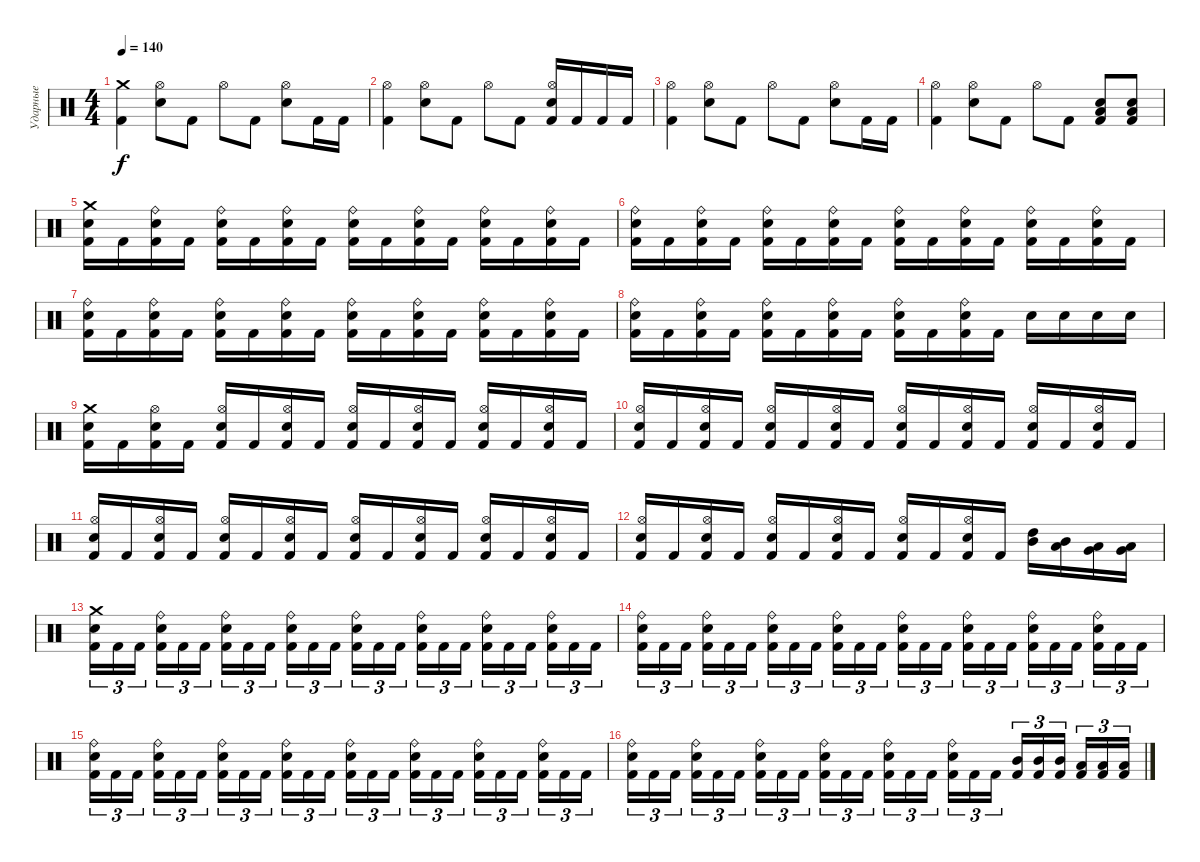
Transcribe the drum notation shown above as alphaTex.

\track ("Ударные" "Ударные") {instrument percussion}
\staff {score}
\articulation defaults
\ts (4 4)
\tempo 140
\clef neutral
\ks c
("Crash medium (hit)" "Kick (hit) 2").4{dy f} ("Hi-Hat (open)" "Electric Snare (hit)").8 "Kick (hit) 2".8 "Hi-Hat (open)".8 "Kick (hit) 2".8 ("Hi-Hat (open)" "Electric Snare (hit)").8 "Kick (hit) 2".16 "Kick (hit) 2".16 |
("Hi-Hat (open)" "Kick (hit) 2").4 ("Hi-Hat (open)" "Electric Snare (hit)").8 "Kick (hit) 2".8 "Hi-Hat (open)".8 "Kick (hit) 2".8 ("Hi-Hat (open)" "Electric Snare (hit)" "Kick (hit) 2").16 "Kick (hit) 2".16 "Kick (hit) 2".16 "Kick (hit) 2".16 |
("Hi-Hat (open)" "Kick (hit) 2").4 ("Hi-Hat (open)" "Electric Snare (hit)").8 "Kick (hit) 2".8 "Hi-Hat (open)".8 "Kick (hit) 2".8 ("Hi-Hat (open)" "Electric Snare (hit)").8 "Kick (hit) 2".16 "Kick (hit) 2".16 |
("Hi-Hat (open)" "Kick (hit) 2").4 ("Hi-Hat (open)" "Electric Snare (hit)").8 "Kick (hit) 2".8 "Hi-Hat (open)".8 "Kick (hit) 2".8 ("Electric Snare (hit)" "Low Tom (hit)" "Kick (hit) 2").8 ("Electric Snare (hit)" "Low Tom (hit)" "Kick (hit) 2").8 |
("Crash medium (hit)" "Electric Snare (hit)" "Kick (hit) 2").16 "Kick (hit) 2".16 ("Ride (bell)" "Electric Snare (hit)" "Kick (hit) 2").16 "Kick (hit) 2".16 ("Ride (bell)" "Electric Snare (hit)" "Kick (hit) 2").16 "Kick (hit) 2".16 ("Ride (bell)" "Electric Snare (hit)" "Kick (hit) 2").16 "Kick (hit) 2".16 ("Ride (bell)" "Electric Snare (hit)" "Kick (hit) 2").16 "Kick (hit) 2".16 ("Ride (bell)" "Electric Snare (hit)" "Kick (hit) 2").16 "Kick (hit) 2".16 ("Ride (bell)" "Electric Snare (hit)" "Kick (hit) 2").16 "Kick (hit) 2".16 ("Ride (bell)" "Electric Snare (hit)" "Kick (hit) 2").16 "Kick (hit) 2".16 |
("Ride (bell)" "Electric Snare (hit)" "Kick (hit) 2").16 "Kick (hit) 2".16 ("Ride (bell)" "Electric Snare (hit)" "Kick (hit) 2").16 "Kick (hit) 2".16 ("Ride (bell)" "Electric Snare (hit)" "Kick (hit) 2").16 "Kick (hit) 2".16 ("Ride (bell)" "Electric Snare (hit)" "Kick (hit) 2").16 "Kick (hit) 2".16 ("Ride (bell)" "Electric Snare (hit)" "Kick (hit) 2").16 "Kick (hit) 2".16 ("Ride (bell)" "Electric Snare (hit)" "Kick (hit) 2").16 "Kick (hit) 2".16 ("Ride (bell)" "Electric Snare (hit)" "Kick (hit) 2").16 "Kick (hit) 2".16 ("Ride (bell)" "Electric Snare (hit)" "Kick (hit) 2").16 "Kick (hit) 2".16 |
("Ride (bell)" "Electric Snare (hit)" "Kick (hit) 2").16 "Kick (hit) 2".16 ("Ride (bell)" "Electric Snare (hit)" "Kick (hit) 2").16 "Kick (hit) 2".16 ("Ride (bell)" "Electric Snare (hit)" "Kick (hit) 2").16 "Kick (hit) 2".16 ("Ride (bell)" "Electric Snare (hit)" "Kick (hit) 2").16 "Kick (hit) 2".16 ("Ride (bell)" "Electric Snare (hit)" "Kick (hit) 2").16 "Kick (hit) 2".16 ("Ride (bell)" "Electric Snare (hit)" "Kick (hit) 2").16 "Kick (hit) 2".16 ("Ride (bell)" "Electric Snare (hit)" "Kick (hit) 2").16 "Kick (hit) 2".16 ("Ride (bell)" "Electric Snare (hit)" "Kick (hit) 2").16 "Kick (hit) 2".16 |
("Ride (bell)" "Electric Snare (hit)" "Kick (hit) 2").16 "Kick (hit) 2".16 ("Ride (bell)" "Electric Snare (hit)" "Kick (hit) 2").16 "Kick (hit) 2".16 ("Ride (bell)" "Electric Snare (hit)" "Kick (hit) 2").16 "Kick (hit) 2".16 ("Ride (bell)" "Electric Snare (hit)" "Kick (hit) 2").16 "Kick (hit) 2".16 ("Ride (bell)" "Electric Snare (hit)" "Kick (hit) 2").16 "Kick (hit) 2".16 ("Ride (bell)" "Electric Snare (hit)" "Kick (hit) 2").16 "Kick (hit) 2".16 "Electric Snare (hit)".16 "Electric Snare (hit)".16 "Electric Snare (hit)".16 "Electric Snare (hit)".16 |
("Crash medium (hit)" "Electric Snare (hit)" "Kick (hit) 2").16 "Kick (hit) 2".16 ("Hi-Hat (open)" "Electric Snare (hit)" "Kick (hit) 2").16 "Kick (hit) 2".16 ("Hi-Hat (open)" "Electric Snare (hit)" "Kick (hit) 2").16 "Kick (hit) 2".16 ("Hi-Hat (open)" "Electric Snare (hit)" "Kick (hit) 2").16 "Kick (hit) 2".16 ("Hi-Hat (open)" "Electric Snare (hit)" "Kick (hit) 2").16 "Kick (hit) 2".16 ("Hi-Hat (open)" "Electric Snare (hit)" "Kick (hit) 2").16 "Kick (hit) 2".16 ("Hi-Hat (open)" "Electric Snare (hit)" "Kick (hit) 2").16 "Kick (hit) 2".16 ("Hi-Hat (open)" "Electric Snare (hit)" "Kick (hit) 2").16 "Kick (hit) 2".16 |
("Hi-Hat (open)" "Electric Snare (hit)" "Kick (hit) 2").16 "Kick (hit) 2".16 ("Hi-Hat (open)" "Electric Snare (hit)" "Kick (hit) 2").16 "Kick (hit) 2".16 ("Hi-Hat (open)" "Electric Snare (hit)" "Kick (hit) 2").16 "Kick (hit) 2".16 ("Hi-Hat (open)" "Electric Snare (hit)" "Kick (hit) 2").16 "Kick (hit) 2".16 ("Hi-Hat (open)" "Electric Snare (hit)" "Kick (hit) 2").16 "Kick (hit) 2".16 ("Hi-Hat (open)" "Electric Snare (hit)" "Kick (hit) 2").16 "Kick (hit) 2".16 ("Hi-Hat (open)" "Electric Snare (hit)" "Kick (hit) 2").16 "Kick (hit) 2".16 ("Hi-Hat (open)" "Electric Snare (hit)" "Kick (hit) 2").16 "Kick (hit) 2".16 |
("Hi-Hat (open)" "Electric Snare (hit)" "Kick (hit) 2").16 "Kick (hit) 2".16 ("Hi-Hat (open)" "Electric Snare (hit)" "Kick (hit) 2").16 "Kick (hit) 2".16 ("Hi-Hat (open)" "Electric Snare (hit)" "Kick (hit) 2").16 "Kick (hit) 2".16 ("Hi-Hat (open)" "Electric Snare (hit)" "Kick (hit) 2").16 "Kick (hit) 2".16 ("Hi-Hat (open)" "Electric Snare (hit)" "Kick (hit) 2").16 "Kick (hit) 2".16 ("Hi-Hat (open)" "Electric Snare (hit)" "Kick (hit) 2").16 "Kick (hit) 2".16 ("Hi-Hat (open)" "Electric Snare (hit)" "Kick (hit) 2").16 "Kick (hit) 2".16 ("Hi-Hat (open)" "Electric Snare (hit)" "Kick (hit) 2").16 "Kick (hit) 2".16 |
("Hi-Hat (open)" "Electric Snare (hit)" "Kick (hit) 2").16 "Kick (hit) 2".16 ("Hi-Hat (open)" "Electric Snare (hit)" "Kick (hit) 2").16 "Kick (hit) 2".16 ("Hi-Hat (open)" "Electric Snare (hit)" "Kick (hit) 2").16 "Kick (hit) 2".16 ("Hi-Hat (open)" "Electric Snare (hit)" "Kick (hit) 2").16 "Kick (hit) 2".16 ("Hi-Hat (open)" "Electric Snare (hit)" "Kick (hit) 2").16 "Kick (hit) 2".16 ("Hi-Hat (open)" "Electric Snare (hit)" "Kick (hit) 2").16 "Kick (hit) 2".16 ("High Tom (hit)" "Mid Tom (hit)").16 ("Mid Tom (hit)" "Low Tom (hit)").16 ("Low Tom (hit)" "Very Low Tom (hit)").16 ("Very Low Tom (hit)" "Low Floor Tom (hit)").16 |
("Crash medium (hit)" "Electric Snare (hit)" "Kick (hit) 2").16{tu (3 2)} "Kick (hit) 2".16{tu (3 2)} "Kick (hit) 2".16{tu (3 2) beam splitsecondary} ("Ride (bell)" "Electric Snare (hit)" "Kick (hit) 2").16{tu (3 2)} "Kick (hit) 2".16{tu (3 2)} "Kick (hit) 2".16{tu (3 2)} ("Ride (bell)" "Electric Snare (hit)" "Kick (hit) 2").16{tu (3 2)} "Kick (hit) 2".16{tu (3 2)} "Kick (hit) 2".16{tu (3 2) beam splitsecondary} ("Ride (bell)" "Electric Snare (hit)" "Kick (hit) 2").16{tu (3 2)} "Kick (hit) 2".16{tu (3 2)} "Kick (hit) 2".16{tu (3 2)} ("Ride (bell)" "Electric Snare (hit)" "Kick (hit) 2").16{tu (3 2)} "Kick (hit) 2".16{tu (3 2)} "Kick (hit) 2".16{tu (3 2) beam splitsecondary} ("Ride (bell)" "Electric Snare (hit)" "Kick (hit) 2").16{tu (3 2)} "Kick (hit) 2".16{tu (3 2)} "Kick (hit) 2".16{tu (3 2)} ("Ride (bell)" "Electric Snare (hit)" "Kick (hit) 2").16{tu (3 2)} "Kick (hit) 2".16{tu (3 2)} "Kick (hit) 2".16{tu (3 2) beam splitsecondary} ("Ride (bell)" "Electric Snare (hit)" "Kick (hit) 2").16{tu (3 2)} "Kick (hit) 2".16{tu (3 2)} "Kick (hit) 2".16{tu (3 2)} |
("Ride (bell)" "Electric Snare (hit)" "Kick (hit) 2").16{tu (3 2)} "Kick (hit) 2".16{tu (3 2)} "Kick (hit) 2".16{tu (3 2) beam splitsecondary} ("Ride (bell)" "Electric Snare (hit)" "Kick (hit) 2").16{tu (3 2)} "Kick (hit) 2".16{tu (3 2)} "Kick (hit) 2".16{tu (3 2)} ("Ride (bell)" "Electric Snare (hit)" "Kick (hit) 2").16{tu (3 2)} "Kick (hit) 2".16{tu (3 2)} "Kick (hit) 2".16{tu (3 2) beam splitsecondary} ("Ride (bell)" "Electric Snare (hit)" "Kick (hit) 2").16{tu (3 2)} "Kick (hit) 2".16{tu (3 2)} "Kick (hit) 2".16{tu (3 2)} ("Ride (bell)" "Electric Snare (hit)" "Kick (hit) 2").16{tu (3 2)} "Kick (hit) 2".16{tu (3 2)} "Kick (hit) 2".16{tu (3 2) beam splitsecondary} ("Ride (bell)" "Electric Snare (hit)" "Kick (hit) 2").16{tu (3 2)} "Kick (hit) 2".16{tu (3 2)} "Kick (hit) 2".16{tu (3 2)} ("Ride (bell)" "Electric Snare (hit)" "Kick (hit) 2").16{tu (3 2)} "Kick (hit) 2".16{tu (3 2)} "Kick (hit) 2".16{tu (3 2) beam splitsecondary} ("Ride (bell)" "Electric Snare (hit)" "Kick (hit) 2").16{tu (3 2)} "Kick (hit) 2".16{tu (3 2)} "Kick (hit) 2".16{tu (3 2)} |
("Ride (bell)" "Electric Snare (hit)" "Kick (hit) 2").16{tu (3 2)} "Kick (hit) 2".16{tu (3 2)} "Kick (hit) 2".16{tu (3 2) beam splitsecondary} ("Ride (bell)" "Electric Snare (hit)" "Kick (hit) 2").16{tu (3 2)} "Kick (hit) 2".16{tu (3 2)} "Kick (hit) 2".16{tu (3 2)} ("Ride (bell)" "Electric Snare (hit)" "Kick (hit) 2").16{tu (3 2)} "Kick (hit) 2".16{tu (3 2)} "Kick (hit) 2".16{tu (3 2) beam splitsecondary} ("Ride (bell)" "Electric Snare (hit)" "Kick (hit) 2").16{tu (3 2)} "Kick (hit) 2".16{tu (3 2)} "Kick (hit) 2".16{tu (3 2)} ("Ride (bell)" "Electric Snare (hit)" "Kick (hit) 2").16{tu (3 2)} "Kick (hit) 2".16{tu (3 2)} "Kick (hit) 2".16{tu (3 2) beam splitsecondary} ("Ride (bell)" "Electric Snare (hit)" "Kick (hit) 2").16{tu (3 2)} "Kick (hit) 2".16{tu (3 2)} "Kick (hit) 2".16{tu (3 2)} ("Ride (bell)" "Electric Snare (hit)" "Kick (hit) 2").16{tu (3 2)} "Kick (hit) 2".16{tu (3 2)} "Kick (hit) 2".16{tu (3 2) beam splitsecondary} ("Ride (bell)" "Electric Snare (hit)" "Kick (hit) 2").16{tu (3 2)} "Kick (hit) 2".16{tu (3 2)} "Kick (hit) 2".16{tu (3 2)} |
("Ride (bell)" "Electric Snare (hit)" "Kick (hit) 2").16{tu (3 2)} "Kick (hit) 2".16{tu (3 2)} "Kick (hit) 2".16{tu (3 2) beam splitsecondary} ("Ride (bell)" "Electric Snare (hit)" "Kick (hit) 2").16{tu (3 2)} "Kick (hit) 2".16{tu (3 2)} "Kick (hit) 2".16{tu (3 2)} ("Ride (bell)" "Electric Snare (hit)" "Kick (hit) 2").16{tu (3 2)} "Kick (hit) 2".16{tu (3 2)} "Kick (hit) 2".16{tu (3 2) beam splitsecondary} ("Ride (bell)" "Electric Snare (hit)" "Kick (hit) 2").16{tu (3 2)} "Kick (hit) 2".16{tu (3 2)} "Kick (hit) 2".16{tu (3 2)} ("Ride (bell)" "Electric Snare (hit)" "Kick (hit) 2").16{tu (3 2)} "Kick (hit) 2".16{tu (3 2)} "Kick (hit) 2".16{tu (3 2) beam splitsecondary} ("Ride (bell)" "Electric Snare (hit)" "Kick (hit) 2").16{tu (3 2)} "Kick (hit) 2".16{tu (3 2)} "Kick (hit) 2".16{tu (3 2)} ("Mid Tom (hit)" "Kick (hit) 2").16{tu (3 2)} ("Mid Tom (hit)" "Kick (hit) 2").16{tu (3 2)} ("Mid Tom (hit)" "Kick (hit) 2").16{tu (3 2) beam splitsecondary} ("Low Tom (hit)" "Kick (hit) 2").16{tu (3 2)} ("Low Tom (hit)" "Kick (hit) 2").16{tu (3 2)} ("Low Tom (hit)" "Kick (hit) 2").16{tu (3 2)}
